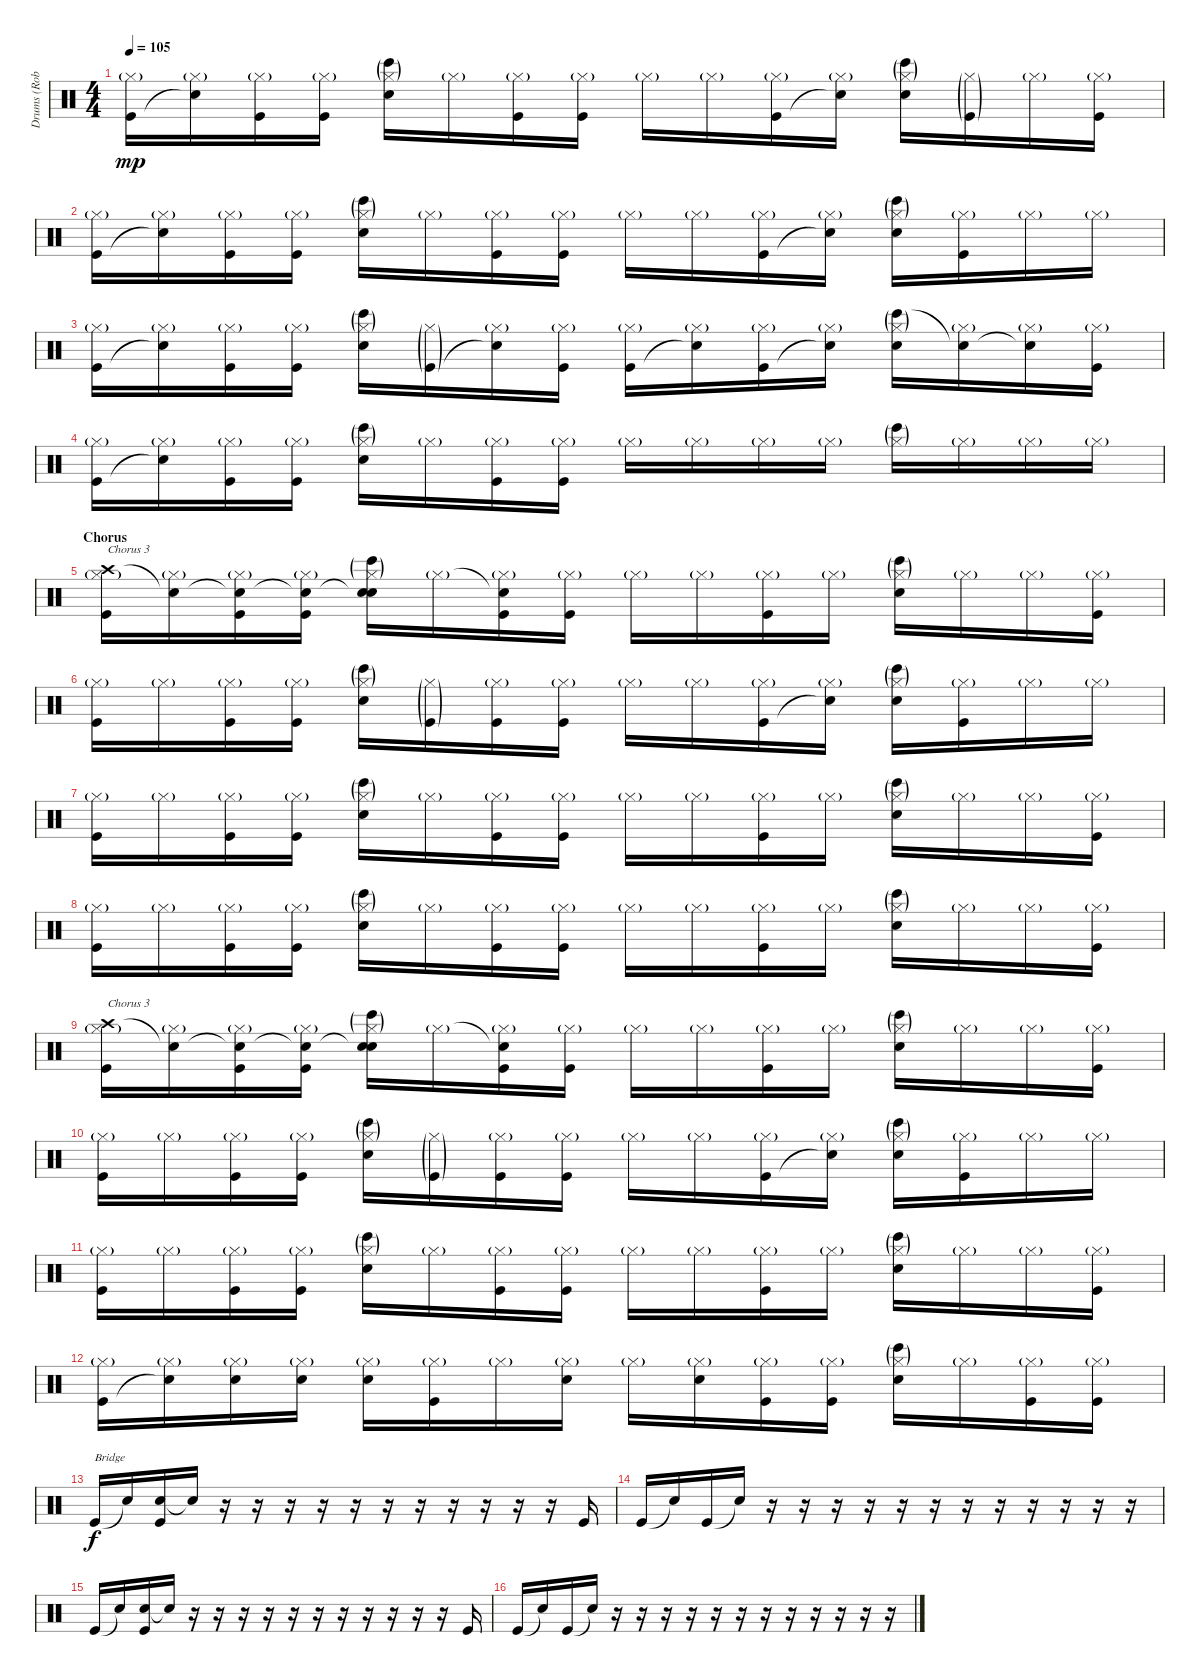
\track ("Drums (Rob Bourdon)" "Drums (Rob") {instrument percussion}
\staff {score}
\articulation defaults
\ts (4 4)
\tempo 105
\clef neutral
\ks c
("Hi-Hat (closed)"{g} "Kick (hit)").16{dy mp} ("Hi-Hat (closed)"{g} "Snare (hit)"{t}).16 ("Hi-Hat (closed)"{g} "Kick (hit)").16 ("Hi-Hat (closed)"{g} "Kick (hit)").16 ("Hi-Hat (closed)"{g} "Bongo High (hit)"{g} "Electric Snare (hit)").16 "Hi-Hat (closed)"{g}.16 ("Hi-Hat (closed)"{g} "Kick (hit)").16 ("Hi-Hat (closed)"{g} "Kick (hit)").16 "Hi-Hat (closed)"{g}.16 "Hi-Hat (closed)"{g}.16 ("Hi-Hat (closed)"{g} "Kick (hit)").16 ("Hi-Hat (closed)"{g} "Snare (hit)"{t}).16 ("Hi-Hat (closed)"{g} "Bongo High (hit)"{g} "Electric Snare (hit)").16 ("Hi-Hat (closed)"{g} "Kick (hit)"{g}).16 "Hi-Hat (closed)"{g}.16 ("Hi-Hat (closed)"{g} "Kick (hit)").16 |
("Hi-Hat (closed)"{g} "Kick (hit)").16 ("Hi-Hat (closed)"{g} "Snare (hit)"{t}).16 ("Hi-Hat (closed)"{g} "Kick (hit)").16 ("Hi-Hat (closed)"{g} "Kick (hit)").16 ("Hi-Hat (closed)"{g} "Bongo High (hit)"{g} "Electric Snare (hit)").16 "Hi-Hat (closed)"{g}.16 ("Hi-Hat (closed)"{g} "Kick (hit)").16 ("Hi-Hat (closed)"{g} "Kick (hit)").16 "Hi-Hat (closed)"{g}.16 "Hi-Hat (closed)"{g}.16 ("Hi-Hat (closed)"{g} "Kick (hit)").16 ("Hi-Hat (closed)"{g} "Snare (hit)"{t}).16 ("Hi-Hat (closed)"{g} "Bongo High (hit)"{g} "Electric Snare (hit)").16 ("Hi-Hat (closed)"{g} "Kick (hit)").16 "Hi-Hat (closed)"{g}.16 "Hi-Hat (closed)"{g}.16 |
("Hi-Hat (closed)"{g} "Kick (hit)").16 ("Hi-Hat (closed)"{g} "Snare (hit)"{t}).16 ("Hi-Hat (closed)"{g} "Kick (hit)").16 ("Hi-Hat (closed)"{g} "Kick (hit)").16 ("Hi-Hat (closed)"{g} "Bongo High (hit)"{g} "Electric Snare (hit)").16 ("Hi-Hat (closed)"{g} "Kick (hit)"{g}).16 ("Hi-Hat (closed)"{g} "Snare (hit)"{t}).16 ("Hi-Hat (closed)"{g} "Kick (hit)").16 ("Hi-Hat (closed)"{g} "Kick (hit)").16 ("Hi-Hat (closed)"{g} "Snare (hit)"{t}).16 ("Hi-Hat (closed)"{g} "Kick (hit)").16 ("Hi-Hat (closed)"{g} "Snare (hit)"{t}).16 ("Hi-Hat (closed)"{g} "Bongo High (hit)"{g} "Electric Snare (hit)").16 ("Hi-Hat (closed)"{g} "Snare (hit)"{t}).16 ("Hi-Hat (closed)"{g} "Snare (hit)"{t}).16 ("Hi-Hat (closed)"{g} "Kick (hit)").16 |
("Hi-Hat (closed)"{g} "Kick (hit)").16 ("Hi-Hat (closed)"{g} "Snare (hit)"{t}).16 ("Hi-Hat (closed)"{g} "Kick (hit)").16 ("Hi-Hat (closed)"{g} "Kick (hit)").16 ("Hi-Hat (closed)"{g} "Bongo High (hit)"{g} "Electric Snare (hit)").16 "Hi-Hat (closed)"{g}.16 ("Hi-Hat (closed)"{g} "Kick (hit)").16 ("Hi-Hat (closed)"{g} "Kick (hit)").16 "Hi-Hat (closed)"{g}.16 "Hi-Hat (closed)"{g}.16 "Hi-Hat (closed)"{g}.16 "Hi-Hat (closed)"{g}.16 ("Hi-Hat (closed)"{g} "Bongo High (hit)"{g}).16 "Hi-Hat (closed)"{g}.16 "Hi-Hat (closed)"{g}.16 "Hi-Hat (closed)"{g}.16 |
\section ("" "Chorus")
("Crash high (hit)" "Hi-Hat (closed)"{g} "Kick (hit)").16{txt "Chorus 3"} ("Snare (hit)"{t} "Hi-Hat (closed)"{g}).16 ("Snare (hit)"{t} "Hi-Hat (closed)"{g} "Kick (hit)").16 ("Snare (hit)"{t} "Hi-Hat (closed)"{g} "Kick (hit)").16 ("Snare (hit)"{t} "Hi-Hat (closed)"{g} "Bongo High (hit)"{g} "Electric Snare (hit)").16 "Hi-Hat (closed)"{g}.16 ("Snare (hit)"{t} "Hi-Hat (closed)"{g} "Kick (hit)").16 ("Hi-Hat (closed)"{g} "Kick (hit)").16 "Hi-Hat (closed)"{g}.16 "Hi-Hat (closed)"{g}.16 ("Hi-Hat (closed)"{g} "Kick (hit)").16 "Hi-Hat (closed)"{g}.16 ("Hi-Hat (closed)"{g} "Bongo High (hit)"{g} "Electric Snare (hit)").16 "Hi-Hat (closed)"{g}.16 "Hi-Hat (closed)"{g}.16 ("Hi-Hat (closed)"{g} "Kick (hit)").16 |
("Hi-Hat (closed)"{g} "Kick (hit)").16 "Hi-Hat (closed)"{g}.16 ("Hi-Hat (closed)"{g} "Kick (hit)").16 ("Hi-Hat (closed)"{g} "Kick (hit)").16 ("Hi-Hat (closed)"{g} "Bongo High (hit)"{g} "Electric Snare (hit)").16 ("Hi-Hat (closed)"{g} "Kick (hit)"{g}).16 ("Hi-Hat (closed)"{g} "Kick (hit)").16 ("Hi-Hat (closed)"{g} "Kick (hit)").16 "Hi-Hat (closed)"{g}.16 "Hi-Hat (closed)"{g}.16 ("Hi-Hat (closed)"{g} "Kick (hit)").16 ("Hi-Hat (closed)"{g} "Snare (hit)"{t}).16 ("Hi-Hat (closed)"{g} "Bongo High (hit)"{g} "Electric Snare (hit)").16 ("Hi-Hat (closed)"{g} "Kick (hit)").16 "Hi-Hat (closed)"{g}.16 "Hi-Hat (closed)"{g}.16 |
("Hi-Hat (closed)"{g} "Kick (hit)").16 "Hi-Hat (closed)"{g}.16 ("Hi-Hat (closed)"{g} "Kick (hit)").16 ("Hi-Hat (closed)"{g} "Kick (hit)").16 ("Hi-Hat (closed)"{g} "Bongo High (hit)"{g} "Electric Snare (hit)").16 "Hi-Hat (closed)"{g}.16 ("Hi-Hat (closed)"{g} "Kick (hit)").16 ("Hi-Hat (closed)"{g} "Kick (hit)").16 "Hi-Hat (closed)"{g}.16 "Hi-Hat (closed)"{g}.16 ("Hi-Hat (closed)"{g} "Kick (hit)").16 "Hi-Hat (closed)"{g}.16 ("Hi-Hat (closed)"{g} "Bongo High (hit)"{g} "Electric Snare (hit)").16 "Hi-Hat (closed)"{g}.16 "Hi-Hat (closed)"{g}.16 ("Hi-Hat (closed)"{g} "Kick (hit)").16 |
("Hi-Hat (closed)"{g} "Kick (hit)").16 "Hi-Hat (closed)"{g}.16 ("Hi-Hat (closed)"{g} "Kick (hit)").16 ("Hi-Hat (closed)"{g} "Kick (hit)").16 ("Hi-Hat (closed)"{g} "Bongo High (hit)"{g} "Electric Snare (hit)").16 "Hi-Hat (closed)"{g}.16 ("Hi-Hat (closed)"{g} "Kick (hit)").16 ("Hi-Hat (closed)"{g} "Kick (hit)").16 "Hi-Hat (closed)"{g}.16 "Hi-Hat (closed)"{g}.16 ("Hi-Hat (closed)"{g} "Kick (hit)").16 "Hi-Hat (closed)"{g}.16 ("Hi-Hat (closed)"{g} "Bongo High (hit)"{g} "Electric Snare (hit)").16 "Hi-Hat (closed)"{g}.16 "Hi-Hat (closed)"{g}.16 ("Hi-Hat (closed)"{g} "Kick (hit)").16 |
("Crash high (hit)" "Hi-Hat (closed)"{g} "Kick (hit)").16{txt "Chorus 3"} ("Snare (hit)"{t} "Hi-Hat (closed)"{g}).16 ("Snare (hit)"{t} "Hi-Hat (closed)"{g} "Kick (hit)").16 ("Snare (hit)"{t} "Hi-Hat (closed)"{g} "Kick (hit)").16 ("Snare (hit)"{t} "Hi-Hat (closed)"{g} "Bongo High (hit)"{g} "Electric Snare (hit)").16 "Hi-Hat (closed)"{g}.16 ("Snare (hit)"{t} "Hi-Hat (closed)"{g} "Kick (hit)").16 ("Hi-Hat (closed)"{g} "Kick (hit)").16 "Hi-Hat (closed)"{g}.16 "Hi-Hat (closed)"{g}.16 ("Hi-Hat (closed)"{g} "Kick (hit)").16 "Hi-Hat (closed)"{g}.16 ("Hi-Hat (closed)"{g} "Bongo High (hit)"{g} "Electric Snare (hit)").16 "Hi-Hat (closed)"{g}.16 "Hi-Hat (closed)"{g}.16 ("Hi-Hat (closed)"{g} "Kick (hit)").16 |
("Hi-Hat (closed)"{g} "Kick (hit)").16 "Hi-Hat (closed)"{g}.16 ("Hi-Hat (closed)"{g} "Kick (hit)").16 ("Hi-Hat (closed)"{g} "Kick (hit)").16 ("Hi-Hat (closed)"{g} "Bongo High (hit)"{g} "Electric Snare (hit)").16 ("Hi-Hat (closed)"{g} "Kick (hit)"{g}).16 ("Hi-Hat (closed)"{g} "Kick (hit)").16 ("Hi-Hat (closed)"{g} "Kick (hit)").16 "Hi-Hat (closed)"{g}.16 "Hi-Hat (closed)"{g}.16 ("Hi-Hat (closed)"{g} "Kick (hit)").16 ("Hi-Hat (closed)"{g} "Snare (hit)"{t}).16 ("Hi-Hat (closed)"{g} "Bongo High (hit)"{g} "Electric Snare (hit)").16 ("Hi-Hat (closed)"{g} "Kick (hit)").16 "Hi-Hat (closed)"{g}.16 "Hi-Hat (closed)"{g}.16 |
("Hi-Hat (closed)"{g} "Kick (hit)").16 "Hi-Hat (closed)"{g}.16 ("Hi-Hat (closed)"{g} "Kick (hit)").16 ("Hi-Hat (closed)"{g} "Kick (hit)").16 ("Hi-Hat (closed)"{g} "Bongo High (hit)"{g} "Electric Snare (hit)").16 "Hi-Hat (closed)"{g}.16 ("Hi-Hat (closed)"{g} "Kick (hit)").16 ("Hi-Hat (closed)"{g} "Kick (hit)").16 "Hi-Hat (closed)"{g}.16 "Hi-Hat (closed)"{g}.16 ("Hi-Hat (closed)"{g} "Kick (hit)").16 "Hi-Hat (closed)"{g}.16 ("Hi-Hat (closed)"{g} "Bongo High (hit)"{g} "Electric Snare (hit)").16 "Hi-Hat (closed)"{g}.16 "Hi-Hat (closed)"{g}.16 ("Hi-Hat (closed)"{g} "Kick (hit)").16 |
("Hi-Hat (closed)"{g} "Kick (hit)").16 ("Hi-Hat (closed)"{g} "Snare (hit)"{t}).16 ("Hi-Hat (closed)"{g} "Electric Snare (hit)").16 ("Hi-Hat (closed)"{g} "Electric Snare (hit)").16 ("Hi-Hat (closed)"{g} "Electric Snare (hit)").16 ("Hi-Hat (closed)"{g} "Kick (hit)").16 "Hi-Hat (closed)"{g}.16 ("Hi-Hat (closed)"{g} "Electric Snare (hit)").16 "Hi-Hat (closed)"{g}.16 ("Hi-Hat (closed)"{g} "Electric Snare (hit)").16 ("Hi-Hat (closed)"{g} "Kick (hit)").16 ("Hi-Hat (closed)"{g} "Kick (hit)").16 ("Hi-Hat (closed)"{g} "Bongo High (hit)"{g} "Electric Snare (hit)").16 "Hi-Hat (closed)"{g}.16 ("Hi-Hat (closed)"{g} "Kick (hit)").16 ("Hi-Hat (closed)"{g} "Kick (hit)").16 |
"Kick (hit)".16{txt "Bridge" dy f} "Snare (hit)"{t}.16 ("Snare (hit)" "Kick (hit)").16 "Snare (hit)"{t}.16 r.16 r.16 r.16 r.16 r.16 r.16 r.16 r.16 r.16 r.16 r.16 "Kick (hit)".16 |
"Kick (hit)".16 "Snare (hit)"{t}.16 "Kick (hit)".16 "Snare (hit)"{t}.16 r.16 r.16 r.16 r.16 r.16 r.16 r.16 r.16 r.16 r.16 r.16 r.16 |
"Kick (hit)".16 "Snare (hit)"{t}.16 ("Snare (hit)" "Kick (hit)").16 "Snare (hit)"{t}.16 r.16 r.16 r.16 r.16 r.16 r.16 r.16 r.16 r.16 r.16 r.16 "Kick (hit)".16 |
"Kick (hit)".16 "Snare (hit)"{t}.16 "Kick (hit)".16 "Snare (hit)"{t}.16 r.16 r.16 r.16 r.16 r.16 r.16 r.16 r.16 r.16 r.16 r.16 r.16
